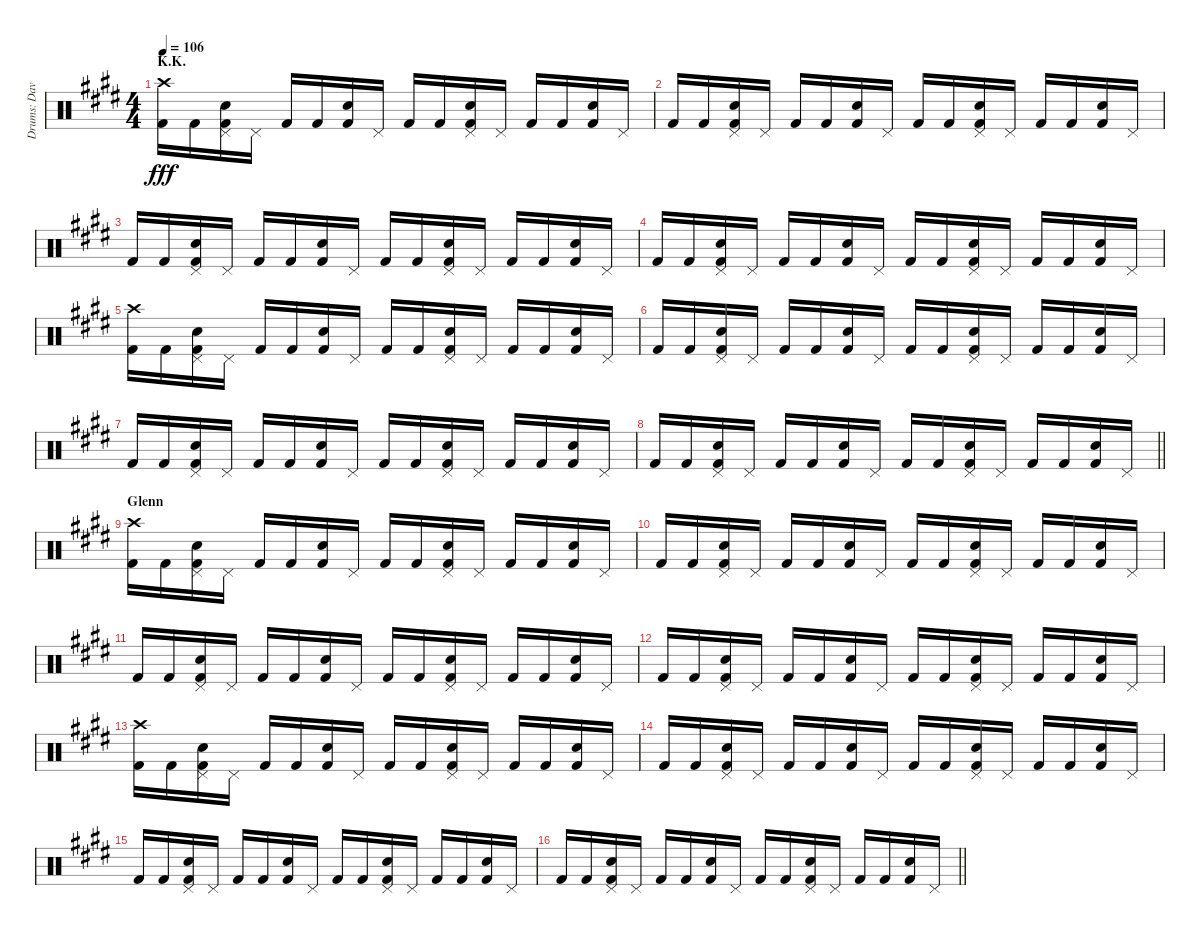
\track ("Drums: Dave" "Drums: Dav") {instrument percussion}
\staff {score}
\articulation defaults
\ts (4 4)
\section ("" "K.K.")
\tempo 106
\clef neutral
\ks e
("Crash high (hit)" "Kick (hit) 2").16{dy fff} "Kick (hit) 2".16 ("Pedal Hi-Hat (hit)" "Snare (hit) 2" "Kick (hit) 2").16 "Pedal Hi-Hat (hit)".16 "Kick (hit) 2".16 "Kick (hit) 2".16 ("Snare (hit) 2" "Kick (hit) 2").16 "Pedal Hi-Hat (hit)".16 "Kick (hit) 2".16 "Kick (hit) 2".16 ("Pedal Hi-Hat (hit)" "Snare (hit) 2" "Kick (hit) 2").16 "Pedal Hi-Hat (hit)".16 "Kick (hit) 2".16 "Kick (hit) 2".16 ("Snare (hit) 2" "Kick (hit) 2").16 "Pedal Hi-Hat (hit)".16 |
"Kick (hit) 2".16 "Kick (hit) 2".16 ("Pedal Hi-Hat (hit)" "Snare (hit) 2" "Kick (hit) 2").16 "Pedal Hi-Hat (hit)".16 "Kick (hit) 2".16 "Kick (hit) 2".16 ("Snare (hit) 2" "Kick (hit) 2").16 "Pedal Hi-Hat (hit)".16 "Kick (hit) 2".16 "Kick (hit) 2".16 ("Pedal Hi-Hat (hit)" "Snare (hit) 2" "Kick (hit) 2").16 "Pedal Hi-Hat (hit)".16 "Kick (hit) 2".16 "Kick (hit) 2".16 ("Snare (hit) 2" "Kick (hit) 2").16 "Pedal Hi-Hat (hit)".16 |
"Kick (hit) 2".16 "Kick (hit) 2".16 ("Pedal Hi-Hat (hit)" "Snare (hit) 2" "Kick (hit) 2").16 "Pedal Hi-Hat (hit)".16 "Kick (hit) 2".16 "Kick (hit) 2".16 ("Snare (hit) 2" "Kick (hit) 2").16 "Pedal Hi-Hat (hit)".16 "Kick (hit) 2".16 "Kick (hit) 2".16 ("Pedal Hi-Hat (hit)" "Snare (hit) 2" "Kick (hit) 2").16 "Pedal Hi-Hat (hit)".16 "Kick (hit) 2".16 "Kick (hit) 2".16 ("Snare (hit) 2" "Kick (hit) 2").16 "Pedal Hi-Hat (hit)".16 |
"Kick (hit) 2".16 "Kick (hit) 2".16 ("Pedal Hi-Hat (hit)" "Snare (hit) 2" "Kick (hit) 2").16 "Pedal Hi-Hat (hit)".16 "Kick (hit) 2".16 "Kick (hit) 2".16 ("Snare (hit) 2" "Kick (hit) 2").16 "Pedal Hi-Hat (hit)".16 "Kick (hit) 2".16 "Kick (hit) 2".16 ("Pedal Hi-Hat (hit)" "Snare (hit) 2" "Kick (hit) 2").16 "Pedal Hi-Hat (hit)".16 "Kick (hit) 2".16 "Kick (hit) 2".16 ("Snare (hit) 2" "Kick (hit) 2").16 "Pedal Hi-Hat (hit)".16 |
("Crash high (hit)" "Kick (hit) 2").16 "Kick (hit) 2".16 ("Pedal Hi-Hat (hit)" "Snare (hit) 2" "Kick (hit) 2").16 "Pedal Hi-Hat (hit)".16 "Kick (hit) 2".16 "Kick (hit) 2".16 ("Snare (hit) 2" "Kick (hit) 2").16 "Pedal Hi-Hat (hit)".16 "Kick (hit) 2".16 "Kick (hit) 2".16 ("Pedal Hi-Hat (hit)" "Snare (hit) 2" "Kick (hit) 2").16 "Pedal Hi-Hat (hit)".16 "Kick (hit) 2".16 "Kick (hit) 2".16 ("Snare (hit) 2" "Kick (hit) 2").16 "Pedal Hi-Hat (hit)".16 |
"Kick (hit) 2".16 "Kick (hit) 2".16 ("Pedal Hi-Hat (hit)" "Snare (hit) 2" "Kick (hit) 2").16 "Pedal Hi-Hat (hit)".16 "Kick (hit) 2".16 "Kick (hit) 2".16 ("Snare (hit) 2" "Kick (hit) 2").16 "Pedal Hi-Hat (hit)".16 "Kick (hit) 2".16 "Kick (hit) 2".16 ("Pedal Hi-Hat (hit)" "Snare (hit) 2" "Kick (hit) 2").16 "Pedal Hi-Hat (hit)".16 "Kick (hit) 2".16 "Kick (hit) 2".16 ("Snare (hit) 2" "Kick (hit) 2").16 "Pedal Hi-Hat (hit)".16 |
"Kick (hit) 2".16 "Kick (hit) 2".16 ("Pedal Hi-Hat (hit)" "Snare (hit) 2" "Kick (hit) 2").16 "Pedal Hi-Hat (hit)".16 "Kick (hit) 2".16 "Kick (hit) 2".16 ("Snare (hit) 2" "Kick (hit) 2").16 "Pedal Hi-Hat (hit)".16 "Kick (hit) 2".16 "Kick (hit) 2".16 ("Pedal Hi-Hat (hit)" "Snare (hit) 2" "Kick (hit) 2").16 "Pedal Hi-Hat (hit)".16 "Kick (hit) 2".16 "Kick (hit) 2".16 ("Snare (hit) 2" "Kick (hit) 2").16 "Pedal Hi-Hat (hit)".16 |
\barLineRight lightlight "Kick (hit) 2".16 "Kick (hit) 2".16
("Pedal Hi-Hat (hit)" "Snare (hit) 2" "Kick (hit) 2").16 "Pedal Hi-Hat (hit)".16 "Kick (hit) 2".16 "Kick (hit) 2".16 ("Snare (hit) 2" "Kick (hit) 2").16 "Pedal Hi-Hat (hit)".16 "Kick (hit) 2".16 "Kick (hit) 2".16 ("Pedal Hi-Hat (hit)" "Snare (hit) 2" "Kick (hit) 2").16 "Pedal Hi-Hat (hit)".16 "Kick (hit) 2".16 "Kick (hit) 2".16 ("Snare (hit) 2" "Kick (hit) 2").16 "Pedal Hi-Hat (hit)".16 |
\section ("" "Glenn")
("Crash high (hit)" "Kick (hit) 2").16 "Kick (hit) 2".16 ("Pedal Hi-Hat (hit)" "Snare (hit) 2" "Kick (hit) 2").16 "Pedal Hi-Hat (hit)".16 "Kick (hit) 2".16 "Kick (hit) 2".16 ("Snare (hit) 2" "Kick (hit) 2").16 "Pedal Hi-Hat (hit)".16 "Kick (hit) 2".16 "Kick (hit) 2".16 ("Pedal Hi-Hat (hit)" "Snare (hit) 2" "Kick (hit) 2").16 "Pedal Hi-Hat (hit)".16 "Kick (hit) 2".16 "Kick (hit) 2".16 ("Snare (hit) 2" "Kick (hit) 2").16 "Pedal Hi-Hat (hit)".16 |
"Kick (hit) 2".16 "Kick (hit) 2".16 ("Pedal Hi-Hat (hit)" "Snare (hit) 2" "Kick (hit) 2").16 "Pedal Hi-Hat (hit)".16 "Kick (hit) 2".16 "Kick (hit) 2".16 ("Snare (hit) 2" "Kick (hit) 2").16 "Pedal Hi-Hat (hit)".16 "Kick (hit) 2".16 "Kick (hit) 2".16 ("Pedal Hi-Hat (hit)" "Snare (hit) 2" "Kick (hit) 2").16 "Pedal Hi-Hat (hit)".16 "Kick (hit) 2".16 "Kick (hit) 2".16 ("Snare (hit) 2" "Kick (hit) 2").16 "Pedal Hi-Hat (hit)".16 |
"Kick (hit) 2".16 "Kick (hit) 2".16 ("Pedal Hi-Hat (hit)" "Snare (hit) 2" "Kick (hit) 2").16 "Pedal Hi-Hat (hit)".16 "Kick (hit) 2".16 "Kick (hit) 2".16 ("Snare (hit) 2" "Kick (hit) 2").16 "Pedal Hi-Hat (hit)".16 "Kick (hit) 2".16 "Kick (hit) 2".16 ("Pedal Hi-Hat (hit)" "Snare (hit) 2" "Kick (hit) 2").16 "Pedal Hi-Hat (hit)".16 "Kick (hit) 2".16 "Kick (hit) 2".16 ("Snare (hit) 2" "Kick (hit) 2").16 "Pedal Hi-Hat (hit)".16 |
"Kick (hit) 2".16 "Kick (hit) 2".16 ("Pedal Hi-Hat (hit)" "Snare (hit) 2" "Kick (hit) 2").16 "Pedal Hi-Hat (hit)".16 "Kick (hit) 2".16 "Kick (hit) 2".16 ("Snare (hit) 2" "Kick (hit) 2").16 "Pedal Hi-Hat (hit)".16 "Kick (hit) 2".16 "Kick (hit) 2".16 ("Pedal Hi-Hat (hit)" "Snare (hit) 2" "Kick (hit) 2").16 "Pedal Hi-Hat (hit)".16 "Kick (hit) 2".16 "Kick (hit) 2".16 ("Snare (hit) 2" "Kick (hit) 2").16 "Pedal Hi-Hat (hit)".16 |
("Crash high (hit)" "Kick (hit) 2").16 "Kick (hit) 2".16 ("Pedal Hi-Hat (hit)" "Snare (hit) 2" "Kick (hit) 2").16 "Pedal Hi-Hat (hit)".16 "Kick (hit) 2".16 "Kick (hit) 2".16 ("Snare (hit) 2" "Kick (hit) 2").16 "Pedal Hi-Hat (hit)".16 "Kick (hit) 2".16 "Kick (hit) 2".16 ("Pedal Hi-Hat (hit)" "Snare (hit) 2" "Kick (hit) 2").16 "Pedal Hi-Hat (hit)".16 "Kick (hit) 2".16 "Kick (hit) 2".16 ("Snare (hit) 2" "Kick (hit) 2").16 "Pedal Hi-Hat (hit)".16 |
"Kick (hit) 2".16 "Kick (hit) 2".16 ("Pedal Hi-Hat (hit)" "Snare (hit) 2" "Kick (hit) 2").16 "Pedal Hi-Hat (hit)".16 "Kick (hit) 2".16 "Kick (hit) 2".16 ("Snare (hit) 2" "Kick (hit) 2").16 "Pedal Hi-Hat (hit)".16 "Kick (hit) 2".16 "Kick (hit) 2".16 ("Pedal Hi-Hat (hit)" "Snare (hit) 2" "Kick (hit) 2").16 "Pedal Hi-Hat (hit)".16 "Kick (hit) 2".16 "Kick (hit) 2".16 ("Snare (hit) 2" "Kick (hit) 2").16 "Pedal Hi-Hat (hit)".16 |
"Kick (hit) 2".16 "Kick (hit) 2".16 ("Pedal Hi-Hat (hit)" "Snare (hit) 2" "Kick (hit) 2").16 "Pedal Hi-Hat (hit)".16 "Kick (hit) 2".16 "Kick (hit) 2".16 ("Snare (hit) 2" "Kick (hit) 2").16 "Pedal Hi-Hat (hit)".16 "Kick (hit) 2".16 "Kick (hit) 2".16 ("Pedal Hi-Hat (hit)" "Snare (hit) 2" "Kick (hit) 2").16 "Pedal Hi-Hat (hit)".16 "Kick (hit) 2".16 "Kick (hit) 2".16 ("Snare (hit) 2" "Kick (hit) 2").16 "Pedal Hi-Hat (hit)".16 |
\barLineRight lightlight "Kick (hit) 2".16 "Kick (hit) 2".16
("Pedal Hi-Hat (hit)" "Snare (hit) 2" "Kick (hit) 2").16 "Pedal Hi-Hat (hit)".16 "Kick (hit) 2".16 "Kick (hit) 2".16 ("Snare (hit) 2" "Kick (hit) 2").16 "Pedal Hi-Hat (hit)".16 "Kick (hit) 2".16 "Kick (hit) 2".16 ("Pedal Hi-Hat (hit)" "Snare (hit) 2" "Kick (hit) 2").16 "Pedal Hi-Hat (hit)".16 "Kick (hit) 2".16 "Kick (hit) 2".16 ("Snare (hit) 2" "Kick (hit) 2").16 "Pedal Hi-Hat (hit)".16
